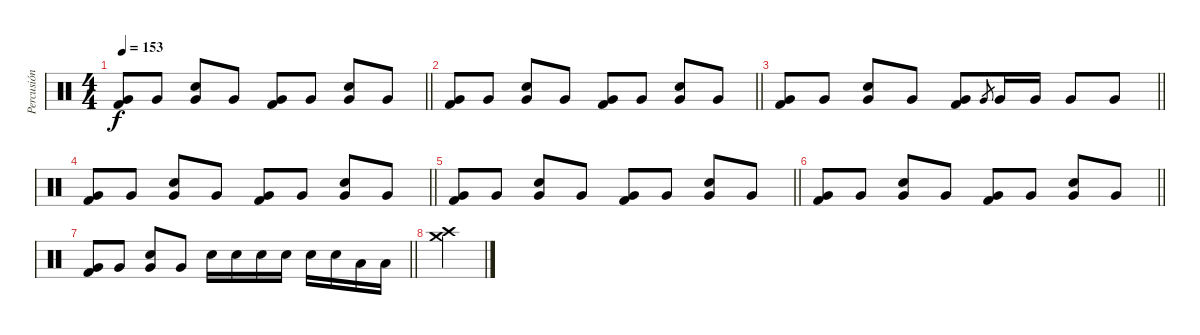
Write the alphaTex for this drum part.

\track ("Percusión" "Percusión") {instrument percussion}
\staff {score}
\articulation defaults
\ts (4 4)
\tempo 153
\clef neutral
\barLineRight lightlight
\ks c
("Very Low Tom (hit)" "Kick (hit) 2").8{dy f} "Very Low Tom (hit)".8 ("Very Low Tom (hit)" "Snare (hit) 2").8 "Very Low Tom (hit)".8 ("Very Low Tom (hit)" "Kick (hit) 2").8 "Very Low Tom (hit)".8 ("Very Low Tom (hit)" "Snare (hit) 2").8 "Very Low Tom (hit)".8 |
\barLineRight lightlight
("Very Low Tom (hit)" "Kick (hit) 2").8 "Very Low Tom (hit)".8 ("Very Low Tom (hit)" "Snare (hit) 2").8 "Very Low Tom (hit)".8 ("Very Low Tom (hit)" "Kick (hit) 2").8 "Very Low Tom (hit)".8 ("Very Low Tom (hit)" "Snare (hit) 2").8 "Very Low Tom (hit)".8 |
\barLineRight lightlight
("Very Low Tom (hit)" "Kick (hit) 2").8 "Very Low Tom (hit)".8 ("Very Low Tom (hit)" "Snare (hit) 2").8 "Very Low Tom (hit)".8 ("Very Low Tom (hit)" "Kick (hit) 2").8 "Very Low Tom (hit)".8{gr} "Very Low Tom (hit)".16 "Very Low Tom (hit)".16 "Very Low Tom (hit)".8 "Very Low Tom (hit)".8 |
\barLineRight lightlight
("Very Low Tom (hit)" "Kick (hit) 2").8 "Very Low Tom (hit)".8 ("Very Low Tom (hit)" "Snare (hit) 2").8 "Very Low Tom (hit)".8 ("Very Low Tom (hit)" "Kick (hit) 2").8 "Very Low Tom (hit)".8 ("Very Low Tom (hit)" "Snare (hit) 2").8 "Very Low Tom (hit)".8 |
\barLineRight lightlight
("Very Low Tom (hit)" "Kick (hit) 2").8 "Very Low Tom (hit)".8 ("Very Low Tom (hit)" "Snare (hit) 2").8 "Very Low Tom (hit)".8 ("Very Low Tom (hit)" "Kick (hit) 2").8 "Very Low Tom (hit)".8 ("Very Low Tom (hit)" "Snare (hit) 2").8 "Very Low Tom (hit)".8 |
\barLineRight lightlight
("Very Low Tom (hit)" "Kick (hit) 2").8 "Very Low Tom (hit)".8 ("Very Low Tom (hit)" "Snare (hit) 2").8 "Very Low Tom (hit)".8 ("Very Low Tom (hit)" "Kick (hit) 2").8 "Very Low Tom (hit)".8 ("Very Low Tom (hit)" "Snare (hit) 2").8 "Very Low Tom (hit)".8 |
\barLineRight lightlight
("Very Low Tom (hit)" "Kick (hit) 2").8 "Very Low Tom (hit)".8 ("Very Low Tom (hit)" "Snare (hit) 2").8 "Very Low Tom (hit)".8 "Snare (hit) 2".16 "Snare (hit) 2".16 "Snare (hit) 2".16 "Snare (hit) 2".16 "Snare (hit) 2".16 "Snare (hit) 2".16 "Low Tom (hit)".16 "Low Tom (hit)".16 |
("Crash high (hit)" "Crash medium (hit)").4
